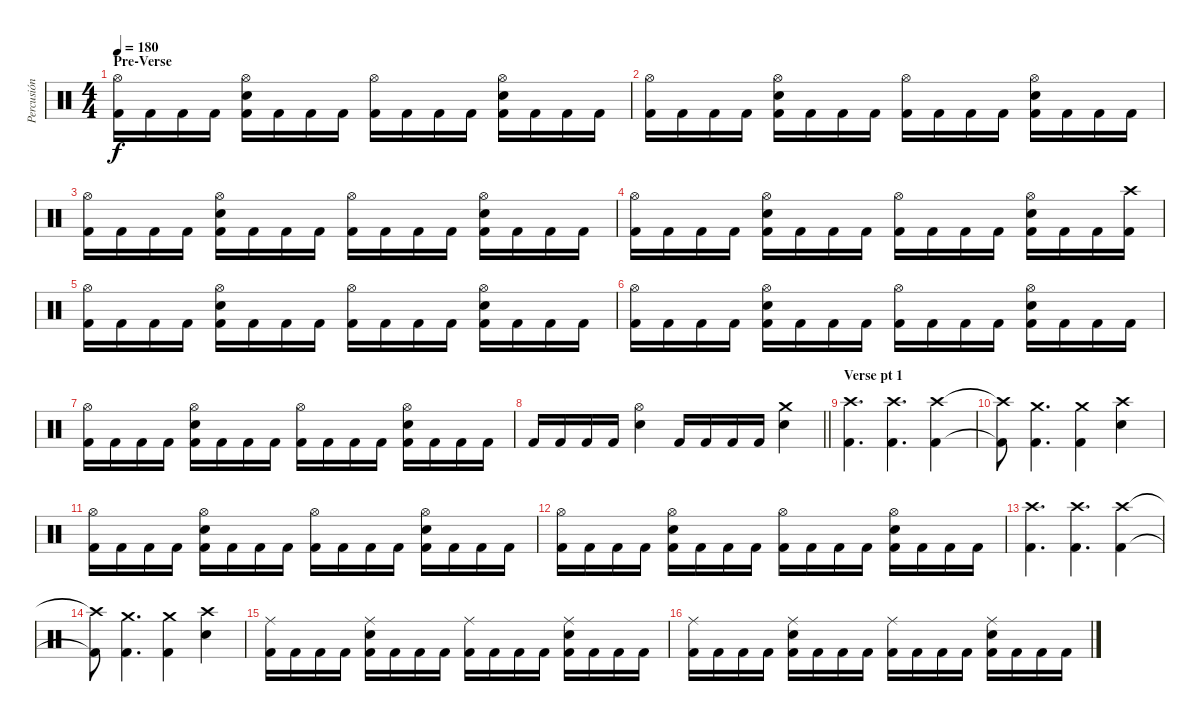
\track ("Percusión" "Percusión") {instrument percussion}
\staff {score}
\articulation defaults
\ts (4 4)
\section ("" "Pre-Verse")
\tempo 180
\clef neutral
\ks c
("Hi-Hat (open)" "Kick (hit) 2").16{dy f} "Kick (hit) 2".16 "Kick (hit) 2".16 "Kick (hit) 2".16 ("Hi-Hat (open)" "Snare (hit) 2" "Kick (hit) 2").16 "Kick (hit) 2".16 "Kick (hit) 2".16 "Kick (hit) 2".16 ("Hi-Hat (open)" "Kick (hit) 2").16 "Kick (hit) 2".16 "Kick (hit) 2".16 "Kick (hit) 2".16 ("Hi-Hat (open)" "Snare (hit) 2" "Kick (hit) 2").16 "Kick (hit) 2".16 "Kick (hit) 2".16 "Kick (hit) 2".16 |
("Hi-Hat (open)" "Kick (hit) 2").16 "Kick (hit) 2".16 "Kick (hit) 2".16 "Kick (hit) 2".16 ("Hi-Hat (open)" "Snare (hit) 2" "Kick (hit) 2").16 "Kick (hit) 2".16 "Kick (hit) 2".16 "Kick (hit) 2".16 ("Hi-Hat (open)" "Kick (hit) 2").16 "Kick (hit) 2".16 "Kick (hit) 2".16 "Kick (hit) 2".16 ("Hi-Hat (open)" "Snare (hit) 2" "Kick (hit) 2").16 "Kick (hit) 2".16 "Kick (hit) 2".16 "Kick (hit) 2".16 |
("Hi-Hat (open)" "Kick (hit) 2").16 "Kick (hit) 2".16 "Kick (hit) 2".16 "Kick (hit) 2".16 ("Hi-Hat (open)" "Snare (hit) 2" "Kick (hit) 2").16 "Kick (hit) 2".16 "Kick (hit) 2".16 "Kick (hit) 2".16 ("Hi-Hat (open)" "Kick (hit) 2").16 "Kick (hit) 2".16 "Kick (hit) 2".16 "Kick (hit) 2".16 ("Hi-Hat (open)" "Snare (hit) 2" "Kick (hit) 2").16 "Kick (hit) 2".16 "Kick (hit) 2".16 "Kick (hit) 2".16 |
("Hi-Hat (open)" "Kick (hit) 2").16 "Kick (hit) 2".16 "Kick (hit) 2".16 "Kick (hit) 2".16 ("Hi-Hat (open)" "Snare (hit) 2" "Kick (hit) 2").16 "Kick (hit) 2".16 "Kick (hit) 2".16 "Kick (hit) 2".16 ("Hi-Hat (open)" "Kick (hit) 2").16 "Kick (hit) 2".16 "Kick (hit) 2".16 "Kick (hit) 2".16 ("Hi-Hat (open)" "Snare (hit) 2" "Kick (hit) 2").16 "Kick (hit) 2".16 "Kick (hit) 2".16 ("Crash high (hit)" "Kick (hit) 2").16 |
("Hi-Hat (open)" "Kick (hit) 2").16 "Kick (hit) 2".16 "Kick (hit) 2".16 "Kick (hit) 2".16 ("Hi-Hat (open)" "Snare (hit) 2" "Kick (hit) 2").16 "Kick (hit) 2".16 "Kick (hit) 2".16 "Kick (hit) 2".16 ("Hi-Hat (open)" "Kick (hit) 2").16 "Kick (hit) 2".16 "Kick (hit) 2".16 "Kick (hit) 2".16 ("Hi-Hat (open)" "Snare (hit) 2" "Kick (hit) 2").16 "Kick (hit) 2".16 "Kick (hit) 2".16 "Kick (hit) 2".16 |
("Hi-Hat (open)" "Kick (hit) 2").16 "Kick (hit) 2".16 "Kick (hit) 2".16 "Kick (hit) 2".16 ("Hi-Hat (open)" "Snare (hit) 2" "Kick (hit) 2").16 "Kick (hit) 2".16 "Kick (hit) 2".16 "Kick (hit) 2".16 ("Hi-Hat (open)" "Kick (hit) 2").16 "Kick (hit) 2".16 "Kick (hit) 2".16 "Kick (hit) 2".16 ("Hi-Hat (open)" "Snare (hit) 2" "Kick (hit) 2").16 "Kick (hit) 2".16 "Kick (hit) 2".16 "Kick (hit) 2".16 |
("Hi-Hat (open)" "Kick (hit) 2").16 "Kick (hit) 2".16 "Kick (hit) 2".16 "Kick (hit) 2".16 ("Hi-Hat (open)" "Snare (hit) 2" "Kick (hit) 2").16 "Kick (hit) 2".16 "Kick (hit) 2".16 "Kick (hit) 2".16 ("Hi-Hat (open)" "Kick (hit) 2").16 "Kick (hit) 2".16 "Kick (hit) 2".16 "Kick (hit) 2".16 ("Hi-Hat (open)" "Snare (hit) 2" "Kick (hit) 2").16 "Kick (hit) 2".16 "Kick (hit) 2".16 "Kick (hit) 2".16 |
\barLineRight lightlight "Kick (hit) 2".16 "Kick (hit) 2".16 "Kick (hit) 2".16 "Kick (hit) 2".16
("Hi-Hat (open)" "Snare (hit) 2").4 "Kick (hit) 2".16 "Kick (hit) 2".16 "Kick (hit) 2".16 "Kick (hit) 2".16 ("Crash medium (hit)" "Snare (hit) 2").4 |
\section ("" "Verse pt 1")
("Crash high (hit)" "Kick (hit) 2").4{d} ("Crash high (hit)" "Kick (hit) 2").4{d} ("Crash high (hit)" "Kick (hit) 2").4 |
("Crash high (hit)"{t} "Kick (hit) 2"{t}).8 ("Crash medium (hit)" "Kick (hit) 2").4{d} ("Crash medium (hit)" "Kick (hit) 2").4 ("Crash high (hit)" "Snare (hit) 2").4 |
("Hi-Hat (open)" "Kick (hit) 2").16 "Kick (hit) 2".16 "Kick (hit) 2".16 "Kick (hit) 2".16 ("Hi-Hat (open)" "Snare (hit) 2" "Kick (hit) 2").16 "Kick (hit) 2".16 "Kick (hit) 2".16 "Kick (hit) 2".16 ("Hi-Hat (open)" "Kick (hit) 2").16 "Kick (hit) 2".16 "Kick (hit) 2".16 "Kick (hit) 2".16 ("Hi-Hat (open)" "Snare (hit) 2" "Kick (hit) 2").16 "Kick (hit) 2".16 "Kick (hit) 2".16 "Kick (hit) 2".16 |
("Hi-Hat (open)" "Kick (hit) 2").16 "Kick (hit) 2".16 "Kick (hit) 2".16 "Kick (hit) 2".16 ("Hi-Hat (open)" "Snare (hit) 2" "Kick (hit) 2").16 "Kick (hit) 2".16 "Kick (hit) 2".16 "Kick (hit) 2".16 ("Hi-Hat (open)" "Kick (hit) 2").16 "Kick (hit) 2".16 "Kick (hit) 2".16 "Kick (hit) 2".16 ("Hi-Hat (open)" "Snare (hit) 2" "Kick (hit) 2").16 "Kick (hit) 2".16 "Kick (hit) 2".16 "Kick (hit) 2".16 |
("Crash high (hit)" "Kick (hit) 2").4{d} ("Crash high (hit)" "Kick (hit) 2").4{d} ("Crash high (hit)" "Kick (hit) 2").4 |
("Crash high (hit)"{t} "Kick (hit) 2"{t}).8 ("Crash medium (hit)" "Kick (hit) 2").4{d} ("Crash medium (hit)" "Kick (hit) 2").4 ("Crash high (hit)" "Snare (hit) 2").4 |
("Ride (middle)" "Kick (hit) 2").16 "Kick (hit) 2".16 "Kick (hit) 2".16 "Kick (hit) 2".16 ("Ride (middle)" "Snare (hit) 2" "Kick (hit) 2").16 "Kick (hit) 2".16 "Kick (hit) 2".16 "Kick (hit) 2".16 ("Ride (middle)" "Kick (hit) 2").16 "Kick (hit) 2".16 "Kick (hit) 2".16 "Kick (hit) 2".16 ("Ride (middle)" "Snare (hit) 2" "Kick (hit) 2").16 "Kick (hit) 2".16 "Kick (hit) 2".16 "Kick (hit) 2".16 |
("Ride (middle)" "Kick (hit) 2").16 "Kick (hit) 2".16 "Kick (hit) 2".16 "Kick (hit) 2".16 ("Ride (middle)" "Snare (hit) 2" "Kick (hit) 2").16 "Kick (hit) 2".16 "Kick (hit) 2".16 "Kick (hit) 2".16 ("Ride (middle)" "Kick (hit) 2").16 "Kick (hit) 2".16 "Kick (hit) 2".16 "Kick (hit) 2".16 ("Ride (middle)" "Snare (hit) 2" "Kick (hit) 2").16 "Kick (hit) 2".16 "Kick (hit) 2".16 "Kick (hit) 2".16
